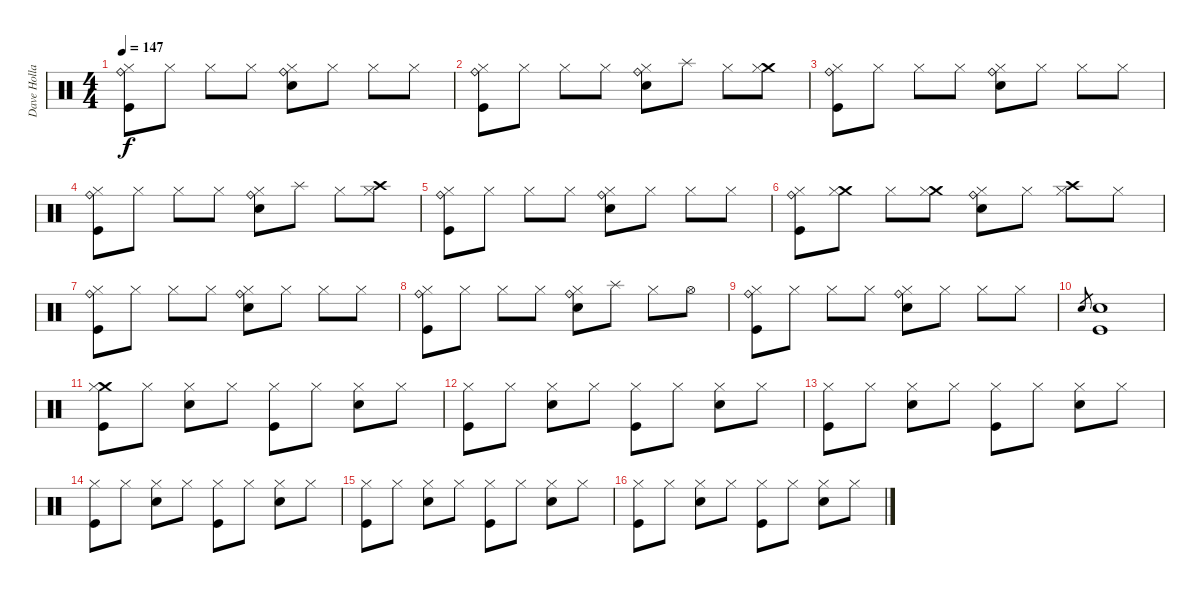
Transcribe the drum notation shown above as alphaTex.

\track ("Dave Holland" "Dave Holla") {instrument percussion}
\staff {score}
\articulation defaults
\ts (4 4)
\tempo 147
\clef neutral
\ks c
("Kick (hit)" "Ride (bell)" "Hi-Hat (closed)").8{dy f} "Hi-Hat (closed)".8 "Hi-Hat (closed)".8 "Hi-Hat (closed)".8 ("Electric Snare (hit)" "Ride (bell)" "Hi-Hat (closed)").8 "Hi-Hat (closed)".8 "Hi-Hat (closed)".8 "Hi-Hat (closed)".8 |
("Kick (hit)" "Ride (bell)" "Hi-Hat (closed)").8 "Hi-Hat (closed)".8 "Hi-Hat (closed)".8 "Hi-Hat (closed)".8 ("Electric Snare (hit)" "Ride (bell)" "Hi-Hat (closed)").8 "Splash (hit)".8 "Hi-Hat (closed)".8 ("Crash medium (hit)" "Hi-Hat (closed)").8 |
("Kick (hit)" "Ride (bell)" "Hi-Hat (closed)").8 "Hi-Hat (closed)".8 "Hi-Hat (closed)".8 "Hi-Hat (closed)".8 ("Electric Snare (hit)" "Ride (bell)" "Hi-Hat (closed)").8 "Hi-Hat (closed)".8 "Hi-Hat (closed)".8 "Hi-Hat (closed)".8 |
("Kick (hit)" "Ride (bell)" "Hi-Hat (closed)").8 "Hi-Hat (closed)".8 "Hi-Hat (closed)".8 "Hi-Hat (closed)".8 ("Electric Snare (hit)" "Ride (bell)" "Hi-Hat (closed)").8 "Splash (hit)".8 "Hi-Hat (closed)".8 ("Crash high (hit)" "Hi-Hat (closed)").8 |
("Kick (hit)" "Ride (bell)" "Hi-Hat (closed)").8 "Hi-Hat (closed)".8 "Hi-Hat (closed)".8 "Hi-Hat (closed)".8 ("Electric Snare (hit)" "Ride (bell)" "Hi-Hat (closed)").8 "Hi-Hat (closed)".8 "Hi-Hat (closed)".8 "Hi-Hat (closed)".8 |
("Kick (hit)" "Ride (bell)" "Hi-Hat (closed)").8 ("Crash medium (hit)" "Hi-Hat (closed)").8 "Hi-Hat (closed)".8 ("Crash medium (hit)" "Hi-Hat (closed)").8 ("Electric Snare (hit)" "Ride (bell)" "Hi-Hat (closed)").8 "Hi-Hat (closed)".8 ("Crash high (hit)" "Hi-Hat (closed)").8 "Hi-Hat (closed)".8 |
("Kick (hit)" "Ride (bell)" "Hi-Hat (closed)").8 "Hi-Hat (closed)".8 "Hi-Hat (closed)".8 "Hi-Hat (closed)".8 ("Electric Snare (hit)" "Ride (bell)" "Hi-Hat (closed)").8 "Hi-Hat (closed)".8 "Hi-Hat (closed)".8 "Hi-Hat (closed)".8 |
("Kick (hit)" "Ride (bell)" "Hi-Hat (closed)").8 "Hi-Hat (closed)".8 "Hi-Hat (closed)".8 "Hi-Hat (closed)".8 ("Electric Snare (hit)" "Ride (bell)" "Hi-Hat (closed)").8 "Splash (hit)".8 "Hi-Hat (closed)".8 "Hi-Hat (open)".8 |
("Kick (hit)" "Ride (bell)" "Hi-Hat (closed)").8 "Hi-Hat (closed)".8 "Hi-Hat (closed)".8 "Hi-Hat (closed)".8 ("Electric Snare (hit)" "Ride (bell)" "Hi-Hat (closed)").8 "Hi-Hat (closed)".8 "Hi-Hat (closed)".8 "Hi-Hat (closed)".8 |
"Electric Snare (hit)".8{gr} ("Kick (hit)" "Electric Snare (hit)").1 |
("Kick (hit)" "Crash medium (hit)" "Hi-Hat (closed)").8 "Hi-Hat (closed)".8 ("Electric Snare (hit)" "Hi-Hat (closed)").8 "Hi-Hat (closed)".8 ("Kick (hit)" "Hi-Hat (closed)").8 "Hi-Hat (closed)".8 ("Electric Snare (hit)" "Hi-Hat (closed)").8 "Hi-Hat (closed)".8 |
("Kick (hit)" "Hi-Hat (closed)").8 "Hi-Hat (closed)".8 ("Electric Snare (hit)" "Hi-Hat (closed)").8 "Hi-Hat (closed)".8 ("Kick (hit)" "Hi-Hat (closed)").8 "Hi-Hat (closed)".8 ("Electric Snare (hit)" "Hi-Hat (closed)").8 "Hi-Hat (closed)".8 |
("Kick (hit)" "Hi-Hat (closed)").8 "Hi-Hat (closed)".8 ("Electric Snare (hit)" "Hi-Hat (closed)").8 "Hi-Hat (closed)".8 ("Kick (hit)" "Hi-Hat (closed)").8 "Hi-Hat (closed)".8 ("Electric Snare (hit)" "Hi-Hat (closed)").8 "Hi-Hat (closed)".8 |
("Kick (hit)" "Hi-Hat (closed)").8 "Hi-Hat (closed)".8 ("Electric Snare (hit)" "Hi-Hat (closed)").8 "Hi-Hat (closed)".8 ("Kick (hit)" "Hi-Hat (closed)").8 "Hi-Hat (closed)".8 ("Electric Snare (hit)" "Hi-Hat (closed)").8 "Hi-Hat (closed)".8 |
("Kick (hit)" "Hi-Hat (closed)").8 "Hi-Hat (closed)".8 ("Electric Snare (hit)" "Hi-Hat (closed)").8 "Hi-Hat (closed)".8 ("Kick (hit)" "Hi-Hat (closed)").8 "Hi-Hat (closed)".8 ("Electric Snare (hit)" "Hi-Hat (closed)").8 "Hi-Hat (closed)".8 |
("Kick (hit)" "Hi-Hat (closed)").8 "Hi-Hat (closed)".8 ("Electric Snare (hit)" "Hi-Hat (closed)").8 "Hi-Hat (closed)".8 ("Kick (hit)" "Hi-Hat (closed)").8 "Hi-Hat (closed)".8 ("Electric Snare (hit)" "Hi-Hat (closed)").8 "Hi-Hat (closed)".8
